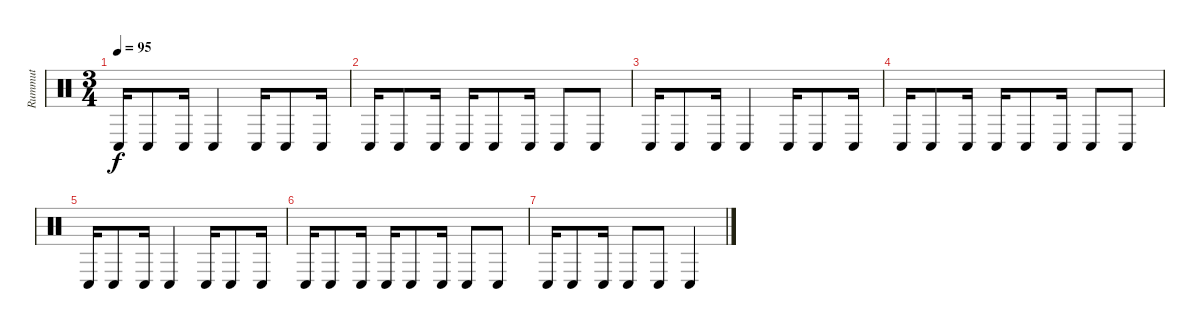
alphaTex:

\track ("Rummut" "Rummut") {instrument percussion}
\staff {score}
\articulation defaults
\ts (3 4)
\tempo 95
\clef neutral
\ks c "Conga low (hit)".16{dy f} "Conga low (hit)".8 "Conga low (hit)".16 "Conga low (hit)".4 "Conga low (hit)".16 "Conga low (hit)".8 "Conga low (hit)".16
|
"Conga low (hit)".16 "Conga low (hit)".8 "Conga low (hit)".16 "Conga low (hit)".16 "Conga low (hit)".8 "Conga low (hit)".16 "Conga low (hit)".8 "Conga low (hit)".8 |
"Conga low (hit)".16 "Conga low (hit)".8 "Conga low (hit)".16 "Conga low (hit)".4 "Conga low (hit)".16 "Conga low (hit)".8 "Conga low (hit)".16 |
"Conga low (hit)".16 "Conga low (hit)".8 "Conga low (hit)".16 "Conga low (hit)".16 "Conga low (hit)".8 "Conga low (hit)".16 "Conga low (hit)".8 "Conga low (hit)".8 |
"Conga low (hit)".16 "Conga low (hit)".8 "Conga low (hit)".16 "Conga low (hit)".4 "Conga low (hit)".16 "Conga low (hit)".8 "Conga low (hit)".16 |
"Conga low (hit)".16 "Conga low (hit)".8 "Conga low (hit)".16 "Conga low (hit)".16 "Conga low (hit)".8 "Conga low (hit)".16 "Conga low (hit)".8 "Conga low (hit)".8 |
"Conga low (hit)".16 "Conga low (hit)".8 "Conga low (hit)".16 "Conga low (hit)".8 "Conga low (hit)".8 "Conga low (hit)".4
